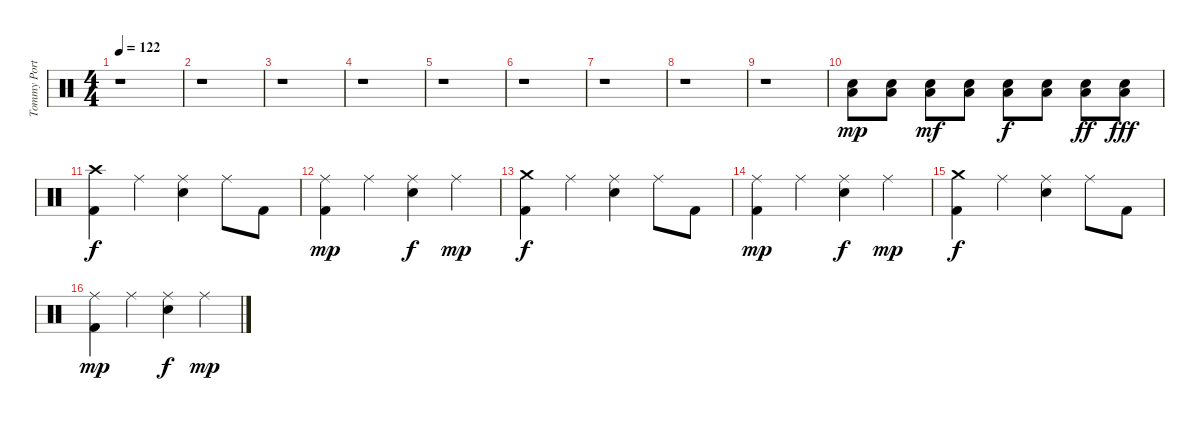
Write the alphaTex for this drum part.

\track ("Tommy Portino" "Tommy Port") {instrument percussion}
\staff {score}
\articulation defaults
\ts (4 4)
\tempo 122
\clef neutral
\ks c
r.1{dy f} |
r.1 |
r.1 |
r.1 |
r.1 |
r.1 |
r.1 |
r.1 |
r.1 |
("Low Floor Tom (hit)" "Snare (hit) 2").8{dy mp} ("Low Floor Tom (hit)" "Snare (hit) 2").8 ("Low Floor Tom (hit)" "Snare (hit) 2").8{dy mf} ("Low Floor Tom (hit)" "Snare (hit) 2").8 ("Low Floor Tom (hit)" "Snare (hit) 2").8{dy f} ("Low Floor Tom (hit)" "Snare (hit) 2").8 ("Low Floor Tom (hit)" "Snare (hit) 2").8{dy ff} ("Low Floor Tom (hit)" "Snare (hit) 2").8{dy fff} |
("Crash high (hit)" "Kick (hit) 2").4{dy f} "Ride (middle)".4 ("Ride (middle)" "Snare (hit) 2").4 "Ride (middle)".8 "Kick (hit) 2".8 |
("Ride (middle)" "Kick (hit) 2").4{dy mp} "Ride (middle)".4 ("Ride (middle)" "Snare (hit) 2").4{dy f} "Ride (middle)".4{dy mp} |
("Crash medium (hit)" "Kick (hit) 2").4{dy f} "Ride (middle)".4 ("Ride (middle)" "Snare (hit) 2").4 "Ride (middle)".8 "Kick (hit) 2".8 |
("Ride (middle)" "Kick (hit) 2").4{dy mp} "Ride (middle)".4 ("Ride (middle)" "Snare (hit) 2").4{dy f} "Ride (middle)".4{dy mp} |
("Crash medium (hit)" "Kick (hit) 2").4{dy f} "Ride (middle)".4 ("Ride (middle)" "Snare (hit) 2").4 "Ride (middle)".8 "Kick (hit) 2".8 |
("Ride (middle)" "Kick (hit) 2").4{dy mp} "Ride (middle)".4 ("Ride (middle)" "Snare (hit) 2").4{dy f} "Ride (middle)".4{dy mp}
